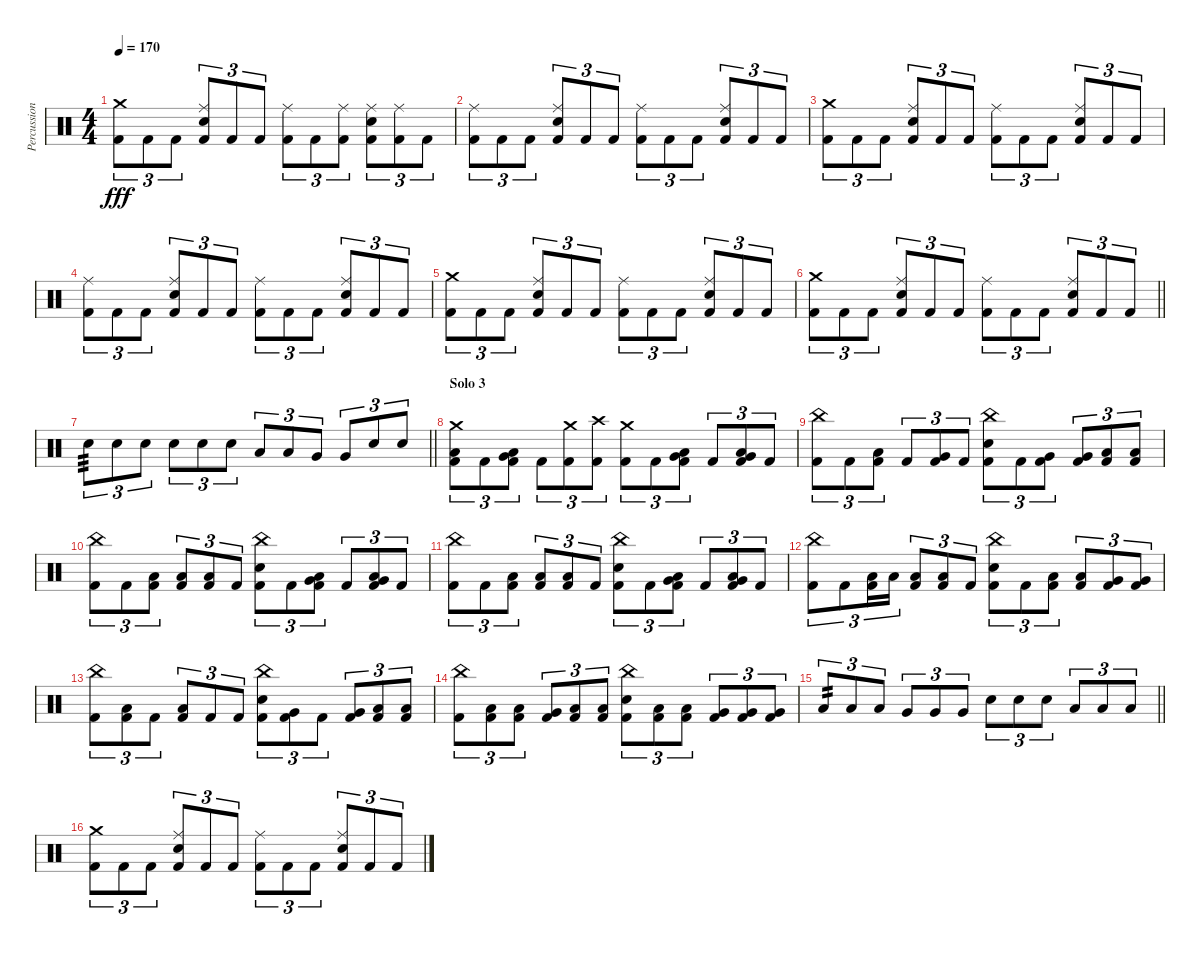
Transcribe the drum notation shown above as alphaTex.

\track ("Percussion" "Percussion") {instrument percussion}
\staff {score}
\articulation defaults
\ts (4 4)
\tempo 170
\clef neutral
\ks c
("Crash medium (hit)" "Kick (hit) 2").8{tu (3 2) dy fff} "Kick (hit) 2".8{tu (3 2)} "Kick (hit) 2".8{tu (3 2)} ("Ride (middle)" "Snare (hit) 2" "Kick (hit) 2").8{tu (3 2)} "Kick (hit) 2".8{tu (3 2)} "Kick (hit) 2".8{tu (3 2)} ("Ride (middle)" "Kick (hit) 2").8{tu (3 2)} "Kick (hit) 2".8{tu (3 2)} ("Ride (middle)" "Kick (hit) 2").8{tu (3 2)} ("Ride (middle)" "Snare (hit) 2" "Kick (hit) 2").8{tu (3 2)} ("Ride (middle)" "Kick (hit) 2").8{tu (3 2)} "Kick (hit) 2".8{tu (3 2)} |
("Ride (middle)" "Kick (hit) 2").8{tu (3 2)} "Kick (hit) 2".8{tu (3 2)} "Kick (hit) 2".8{tu (3 2)} ("Ride (middle)" "Snare (hit) 2" "Kick (hit) 2").8{tu (3 2)} "Kick (hit) 2".8{tu (3 2)} "Kick (hit) 2".8{tu (3 2)} ("Ride (middle)" "Kick (hit) 2").8{tu (3 2)} "Kick (hit) 2".8{tu (3 2)} "Kick (hit) 2".8{tu (3 2)} ("Ride (middle)" "Snare (hit) 2" "Kick (hit) 2").8{tu (3 2)} "Kick (hit) 2".8{tu (3 2)} "Kick (hit) 2".8{tu (3 2)} |
("Crash medium (hit)" "Kick (hit) 2").8{tu (3 2)} "Kick (hit) 2".8{tu (3 2)} "Kick (hit) 2".8{tu (3 2)} ("Ride (middle)" "Snare (hit) 2" "Kick (hit) 2").8{tu (3 2)} "Kick (hit) 2".8{tu (3 2)} "Kick (hit) 2".8{tu (3 2)} ("Ride (middle)" "Kick (hit) 2").8{tu (3 2)} "Kick (hit) 2".8{tu (3 2)} "Kick (hit) 2".8{tu (3 2)} ("Ride (middle)" "Snare (hit) 2" "Kick (hit) 2").8{tu (3 2)} "Kick (hit) 2".8{tu (3 2)} "Kick (hit) 2".8{tu (3 2)} |
("Ride (middle)" "Kick (hit) 2").8{tu (3 2)} "Kick (hit) 2".8{tu (3 2)} "Kick (hit) 2".8{tu (3 2)} ("Ride (middle)" "Snare (hit) 2" "Kick (hit) 2").8{tu (3 2)} "Kick (hit) 2".8{tu (3 2)} "Kick (hit) 2".8{tu (3 2)} ("Ride (middle)" "Kick (hit) 2").8{tu (3 2)} "Kick (hit) 2".8{tu (3 2)} "Kick (hit) 2".8{tu (3 2)} ("Ride (middle)" "Snare (hit) 2" "Kick (hit) 2").8{tu (3 2)} "Kick (hit) 2".8{tu (3 2)} "Kick (hit) 2".8{tu (3 2)} |
("Crash medium (hit)" "Kick (hit) 2").8{tu (3 2)} "Kick (hit) 2".8{tu (3 2)} "Kick (hit) 2".8{tu (3 2)} ("Ride (middle)" "Snare (hit) 2" "Kick (hit) 2").8{tu (3 2)} "Kick (hit) 2".8{tu (3 2)} "Kick (hit) 2".8{tu (3 2)} ("Ride (middle)" "Kick (hit) 2").8{tu (3 2)} "Kick (hit) 2".8{tu (3 2)} "Kick (hit) 2".8{tu (3 2)} ("Ride (middle)" "Snare (hit) 2" "Kick (hit) 2").8{tu (3 2)} "Kick (hit) 2".8{tu (3 2)} "Kick (hit) 2".8{tu (3 2)} |
\barLineRight lightlight
("Crash medium (hit)" "Kick (hit) 2").8{tu (3 2)} "Kick (hit) 2".8{tu (3 2)} "Kick (hit) 2".8{tu (3 2)} ("Ride (middle)" "Snare (hit) 2" "Kick (hit) 2").8{tu (3 2)} "Kick (hit) 2".8{tu (3 2)} "Kick (hit) 2".8{tu (3 2)} ("Ride (middle)" "Kick (hit) 2").8{tu (3 2)} "Kick (hit) 2".8{tu (3 2)} "Kick (hit) 2".8{tu (3 2)} ("Ride (middle)" "Snare (hit) 2" "Kick (hit) 2").8{tu (3 2)} "Kick (hit) 2".8{tu (3 2)} "Kick (hit) 2".8{tu (3 2)} |
\barLineRight lightlight "Electric Snare (hit)".8{tu (3 2) tp 3} "Electric Snare (hit)".8{tu (3 2)} "Electric Snare (hit)".8{tu (3 2)} "Electric Snare (hit)".8{tu (3 2)} "Electric Snare (hit)".8{tu (3 2)} "Electric Snare (hit)".8{tu (3 2)} "Low Tom (hit)".8{tu (3 2)} "Low Tom (hit)".8{tu (3 2)} "Very Low Tom (hit)".8{tu (3 2)} "Very Low Tom (hit)".8{tu (3 2)} "Electric Snare (hit)".8{tu (3 2)} "Electric Snare (hit)".8{tu (3 2)}
|
\section ("" "Solo 3")
("Crash medium (hit)" "Low Floor Tom (hit)" "Kick (hit) 2").8{tu (3 2)} "Kick (hit) 2".8{tu (3 2)} ("Very Low Tom (hit)" "Low Floor Tom (hit)" "Kick (hit) 2").8{tu (3 2)} "Kick (hit) 2".8{tu (3 2)} ("Crash medium (hit)" "Kick (hit) 2").8{tu (3 2)} ("Crash high (hit)" "Kick (hit) 2").8{tu (3 2)} ("Crash medium (hit)" "Kick (hit) 2").8{tu (3 2)} "Kick (hit) 2".8{tu (3 2)} ("Low Floor Tom (hit)" "Very Low Tom (hit)" "Kick (hit) 2").8{tu (3 2)} "Kick (hit) 2".8{tu (3 2)} ("Low Floor Tom (hit)" "Very Low Tom (hit)" "Kick (hit) 2").8{tu (3 2)} "Kick (hit) 2".8{tu (3 2)} |
("China (hit)" "Kick (hit) 2").8{tu (3 2)} "Kick (hit) 2".8{tu (3 2)} ("Low Floor Tom (hit)" "Kick (hit) 2").8{tu (3 2)} "Kick (hit) 2".8{tu (3 2)} ("Very Low Tom (hit)" "Kick (hit) 2").8{tu (3 2)} "Kick (hit) 2".8{tu (3 2)} ("China (hit)" "Electric Snare (hit)" "Kick (hit) 2").8{tu (3 2)} "Kick (hit) 2".8{tu (3 2)} ("Very Low Tom (hit)" "Kick (hit) 2").8{tu (3 2)} ("Very Low Tom (hit)" "Kick (hit) 2").8{tu (3 2)} ("Low Tom (hit)" "Kick (hit) 2").8{tu (3 2)} ("Low Tom (hit)" "Kick (hit) 2").8{tu (3 2)} |
("China (hit)" "Kick (hit) 2").8{tu (3 2)} "Kick (hit) 2".8{tu (3 2)} ("Low Floor Tom (hit)" "Kick (hit) 2").8{tu (3 2)} ("Low Floor Tom (hit)" "Kick (hit) 2").8{tu (3 2)} ("Low Floor Tom (hit)" "Kick (hit) 2").8{tu (3 2)} "Kick (hit) 2".8{tu (3 2)} ("China (hit)" "Electric Snare (hit)" "Kick (hit) 2").8{tu (3 2)} "Kick (hit) 2".8{tu (3 2)} ("Very Low Tom (hit)" "Low Tom (hit)" "Kick (hit) 2").8{tu (3 2)} "Kick (hit) 2".8{tu (3 2)} ("Very Low Tom (hit)" "Low Tom (hit)" "Kick (hit) 2").8{tu (3 2)} "Kick (hit) 2".8{tu (3 2)} |
("China (hit)" "Kick (hit) 2").8{tu (3 2)} "Kick (hit) 2".8{tu (3 2)} ("Low Floor Tom (hit)" "Kick (hit) 2").8{tu (3 2)} ("Low Floor Tom (hit)" "Kick (hit) 2").8{tu (3 2)} ("Low Floor Tom (hit)" "Kick (hit) 2").8{tu (3 2)} "Kick (hit) 2".8{tu (3 2)} ("China (hit)" "Electric Snare (hit)" "Kick (hit) 2").8{tu (3 2)} "Kick (hit) 2".8{tu (3 2)} ("Low Tom (hit)" "Very Low Tom (hit)" "Kick (hit) 2").8{tu (3 2)} "Kick (hit) 2".8{tu (3 2)} ("Low Tom (hit)" "Very Low Tom (hit)" "Kick (hit) 2").8{tu (3 2)} "Kick (hit) 2".8{tu (3 2)} |
("China (hit)" "Kick (hit) 2").8{tu (3 2)} "Kick (hit) 2".8{tu (3 2)} ("Low Floor Tom (hit)" "Kick (hit) 2").16{tu (3 2)} "Low Floor Tom (hit)".16{tu (3 2)} ("Low Floor Tom (hit)" "Kick (hit) 2").8{tu (3 2)} ("Low Floor Tom (hit)" "Kick (hit) 2").8{tu (3 2)} "Kick (hit) 2".8{tu (3 2)} ("China (hit)" "Electric Snare (hit)" "Kick (hit) 2").8{tu (3 2)} "Kick (hit) 2".8{tu (3 2)} ("Low Tom (hit)" "Kick (hit) 2").8{tu (3 2)} ("Low Tom (hit)" "Kick (hit) 2").8{tu (3 2)} ("Very Low Tom (hit)" "Kick (hit) 2").8{tu (3 2)} ("Very Low Tom (hit)" "Kick (hit) 2").8{tu (3 2)} |
("China (hit)" "Kick (hit) 2").8{tu (3 2)} ("Low Floor Tom (hit)" "Kick (hit) 2").8{tu (3 2)} "Kick (hit) 2".8{tu (3 2)} ("Low Floor Tom (hit)" "Kick (hit) 2").8{tu (3 2)} "Kick (hit) 2".8{tu (3 2)} "Kick (hit) 2".8{tu (3 2)} ("China (hit)" "Electric Snare (hit)" "Kick (hit) 2").8{tu (3 2)} ("Very Low Tom (hit)" "Kick (hit) 2").8{tu (3 2)} "Kick (hit) 2".8{tu (3 2)} ("Very Low Tom (hit)" "Kick (hit) 2").8{tu (3 2)} ("Low Tom (hit)" "Kick (hit) 2").8{tu (3 2)} ("Low Tom (hit)" "Kick (hit) 2").8{tu (3 2)} |
("China (hit)" "Kick (hit) 2").8{tu (3 2)} ("Low Floor Tom (hit)" "Kick (hit) 2").8{tu (3 2)} ("Low Tom (hit)" "Kick (hit) 2").8{tu (3 2)} ("Very Low Tom (hit)" "Kick (hit) 2").8{tu (3 2)} ("Low Tom (hit)" "Kick (hit) 2").8{tu (3 2)} ("Low Floor Tom (hit)" "Kick (hit) 2").8{tu (3 2)} ("China (hit)" "Electric Snare (hit)" "Kick (hit) 2").8{tu (3 2)} ("Low Tom (hit)" "Kick (hit) 2").8{tu (3 2)} ("Low Tom (hit)" "Kick (hit) 2").8{tu (3 2)} ("Very Low Tom (hit)" "Kick (hit) 2").8{tu (3 2)} ("Very Low Tom (hit)" "Kick (hit) 2").8{tu (3 2)} ("Very Low Tom (hit)" "Kick (hit) 2").8{tu (3 2)} |
\barLineRight lightlight "Low Tom (hit)".8{tu (3 2) tp 2} "Low Tom (hit)".8{tu (3 2)} "Low Tom (hit)".8{tu (3 2)} "Very Low Tom (hit)".8{tu (3 2)} "Very Low Tom (hit)".8{tu (3 2)} "Very Low Tom (hit)".8{tu (3 2)} "Electric Snare (hit)".8{tu (3 2)} "Electric Snare (hit)".8{tu (3 2)} "Electric Snare (hit)".8{tu (3 2)} "Low Tom (hit)".8{tu (3 2)} "Low Tom (hit)".8{tu (3 2)} "Low Tom (hit)".8{tu (3 2)}
|
("Crash medium (hit)" "Kick (hit) 2").8{tu (3 2)} "Kick (hit) 2".8{tu (3 2)} "Kick (hit) 2".8{tu (3 2)} ("Ride (middle)" "Snare (hit) 2" "Kick (hit) 2").8{tu (3 2)} "Kick (hit) 2".8{tu (3 2)} "Kick (hit) 2".8{tu (3 2)} ("Ride (middle)" "Kick (hit) 2").8{tu (3 2)} "Kick (hit) 2".8{tu (3 2)} "Kick (hit) 2".8{tu (3 2)} ("Ride (middle)" "Snare (hit) 2" "Kick (hit) 2").8{tu (3 2)} "Kick (hit) 2".8{tu (3 2)} "Kick (hit) 2".8{tu (3 2)}
